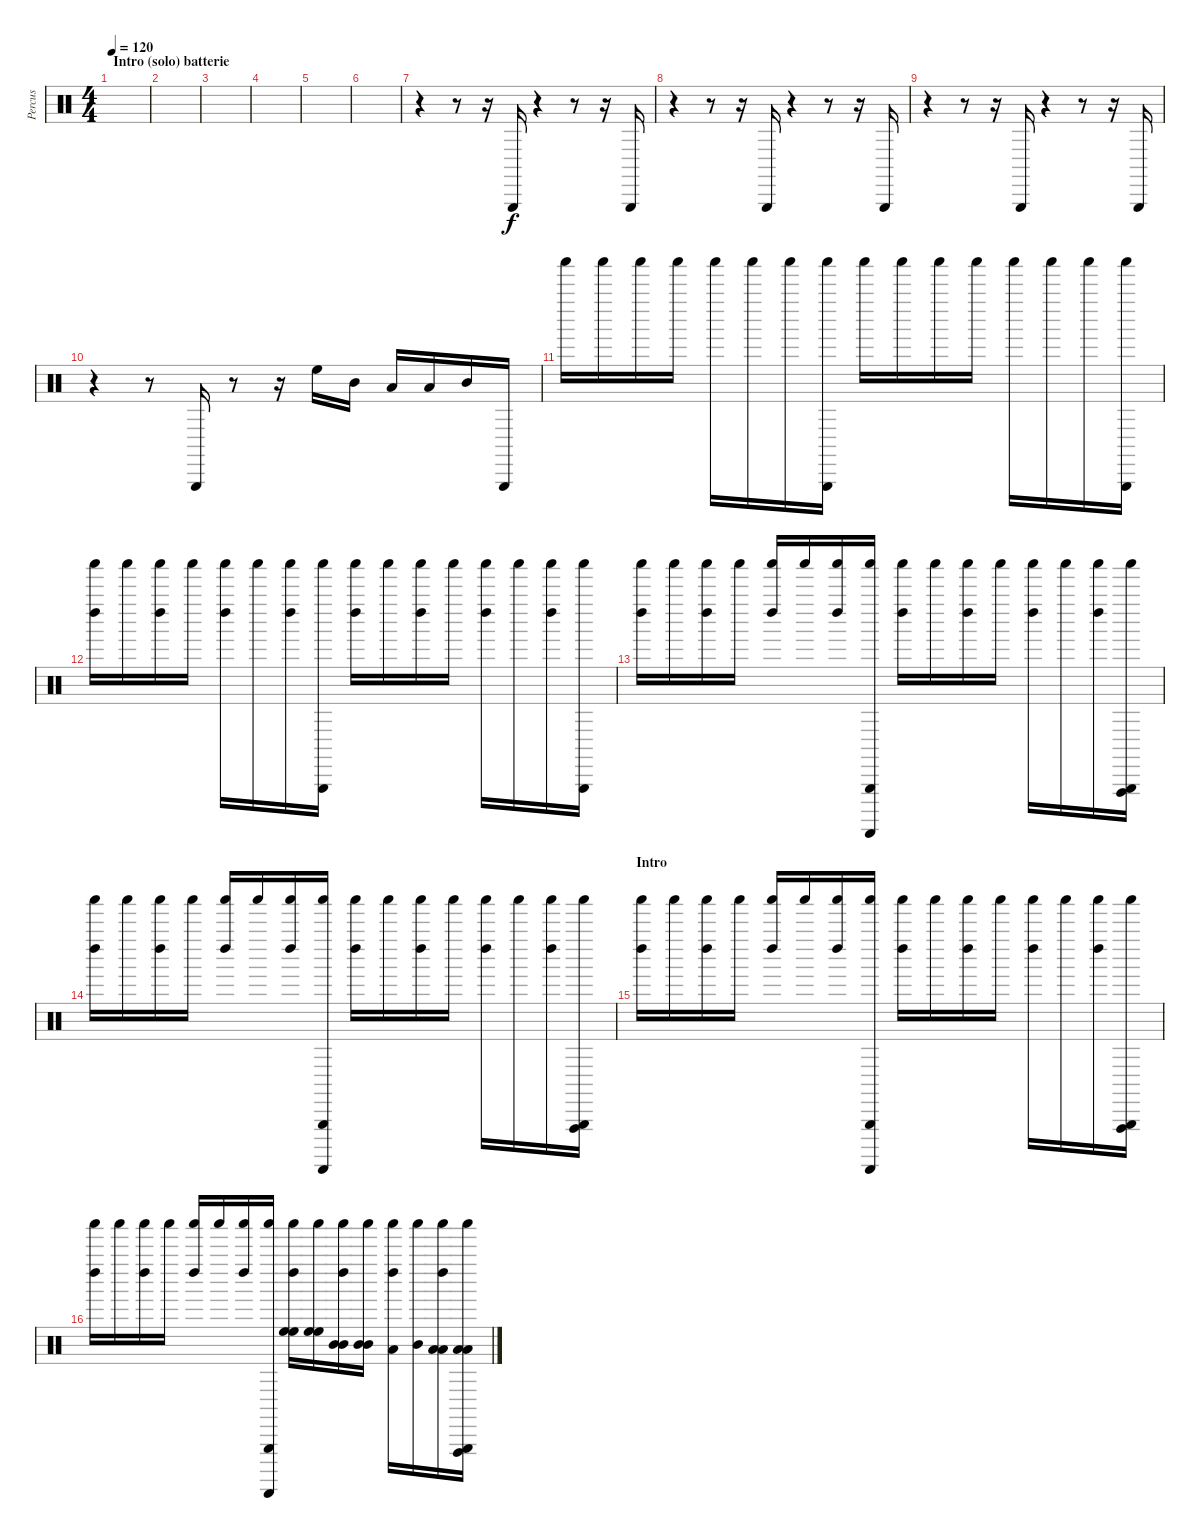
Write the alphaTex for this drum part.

\track ("Percus" "Percus") {instrument percussion}
\staff {score}
\articulation defaults
\ts (4 4)
\section ("" "Intro (solo) batterie")
\tempo 120
\clef neutral
\ks c
|
|
|
|
|
|
r.4 r.8 r.16 "Triangle (hit)".16 r.4 r.8 r.16 "Triangle (hit)".16 |
r.4 r.8 r.16 "Triangle (hit)".16 r.4 r.8 r.16 "Triangle (hit)".16 |
r.4 r.8 r.16 "Triangle (hit)".16 r.4 r.8 r.16 "Triangle (hit)".16 |
r.4 r.8 "Triangle (hit)".16 r.8 r.16 "High Floor Tom (hit)".16 "Mid Tom (hit)".16 "Low Tom (hit)".16 "Low Floor Tom (hit)".16 "Mid Tom (hit)".16 "Triangle (hit)".16 |
"Shaker (hit)".16 "Shaker (hit)".16 "Shaker (hit)".16 "Shaker (hit)".16 "Shaker (hit)".16 "Shaker (hit)".16 "Shaker (hit)".16 ("Triangle (hit)" "Shaker (hit)").16 "Shaker (hit)".16 "Shaker (hit)".16 "Shaker (hit)".16 "Shaker (hit)".16 "Shaker (hit)".16 "Shaker (hit)".16 "Shaker (hit)".16 ("Triangle (hit)" "Shaker (hit)").16 |
("Left Maraca (hit)" "Shaker (hit)").16 "Shaker (hit)".16 ("Left Maraca (hit)" "Shaker (hit)").16 "Shaker (hit)".16 ("Left Maraca (hit)" "Shaker (hit)").16 "Shaker (hit)".16 ("Left Maraca (hit)" "Shaker (hit)").16 ("Triangle (hit)" "Shaker (hit)").16 ("Left Maraca (hit)" "Shaker (hit)").16 "Shaker (hit)".16 ("Left Maraca (hit)" "Shaker (hit)").16 "Shaker (hit)".16 ("Left Maraca (hit)" "Shaker (hit)").16 "Shaker (hit)".16 ("Left Maraca (hit)" "Shaker (hit)").16 ("Triangle (hit)" "Shaker (hit)").16 |
("Left Maraca (hit)" "Shaker (hit)").16 "Shaker (hit)".16 ("Left Maraca (hit)" "Shaker (hit)").16 "Shaker (hit)".16 ("Left Maraca (hit)" "Shaker (hit)").16 "Shaker (hit)".16 ("Left Maraca (hit)" "Shaker (hit)").16 ("Triangle (hit)" "Guiro (scrap-return)" "Shaker (hit)").16 ("Left Maraca (hit)" "Shaker (hit)").16 "Shaker (hit)".16 ("Left Maraca (hit)" "Shaker (hit)").16 "Shaker (hit)".16 ("Left Maraca (hit)" "Shaker (hit)").16 "Shaker (hit)".16 ("Left Maraca (hit)" "Shaker (hit)").16 ("Triangle (hit)" "Vibraslap (hit)" "Shaker (hit)").16 |
("Left Maraca (hit)" "Shaker (hit)").16 "Shaker (hit)".16 ("Left Maraca (hit)" "Shaker (hit)").16 "Shaker (hit)".16 ("Left Maraca (hit)" "Shaker (hit)").16 "Shaker (hit)".16 ("Left Maraca (hit)" "Shaker (hit)").16 ("Triangle (hit)" "Guiro (scrap-return)" "Shaker (hit)").16 ("Left Maraca (hit)" "Shaker (hit)").16 "Shaker (hit)".16 ("Left Maraca (hit)" "Shaker (hit)").16 "Shaker (hit)".16 ("Left Maraca (hit)" "Shaker (hit)").16 "Shaker (hit)".16 ("Left Maraca (hit)" "Shaker (hit)").16 ("Triangle (hit)" "Vibraslap (hit)" "Shaker (hit)").16 |
\section ("" "Intro")
("Left Maraca (hit)" "Shaker (hit)").16 "Shaker (hit)".16 ("Left Maraca (hit)" "Shaker (hit)").16 "Shaker (hit)".16 ("Left Maraca (hit)" "Shaker (hit)").16 "Shaker (hit)".16 ("Left Maraca (hit)" "Shaker (hit)").16 ("Triangle (hit)" "Guiro (scrap-return)" "Shaker (hit)").16 ("Left Maraca (hit)" "Shaker (hit)").16 "Shaker (hit)".16 ("Left Maraca (hit)" "Shaker (hit)").16 "Shaker (hit)".16 ("Left Maraca (hit)" "Shaker (hit)").16 "Shaker (hit)".16 ("Left Maraca (hit)" "Shaker (hit)").16 ("Triangle (hit)" "Vibraslap (hit)" "Shaker (hit)").16 |
("Left Maraca (hit)" "Shaker (hit)").16 "Shaker (hit)".16 ("Left Maraca (hit)" "Shaker (hit)").16 "Shaker (hit)".16 ("Left Maraca (hit)" "Shaker (hit)").16 "Shaker (hit)".16 ("Left Maraca (hit)" "Shaker (hit)").16 ("Triangle (hit)" "Guiro (scrap-return)" "Shaker (hit)").16 ("High Floor Tom (hit)" "High Floor Tom (hit)" "Left Maraca (hit)" "Shaker (hit)").16 ("High Floor Tom (hit)" "High Floor Tom (hit)" "Shaker (hit)").16 ("Mid Tom (hit)" "Mid Tom (hit)" "Left Maraca (hit)" "Shaker (hit)").16 ("Mid Tom (hit)" "Mid Tom (hit)" "Shaker (hit)").16 ("Low Tom (hit)" "Left Maraca (hit)" "Shaker (hit)").16 ("Mid Tom (hit)" "Shaker (hit)").16 ("Low Floor Tom (hit)" "Low Floor Tom (hit)" "Left Maraca (hit)" "Shaker (hit)").16 ("Triangle (hit)" "Low Floor Tom (hit)" "Low Floor Tom (hit)" "Vibraslap (hit)" "Shaker (hit)").16
